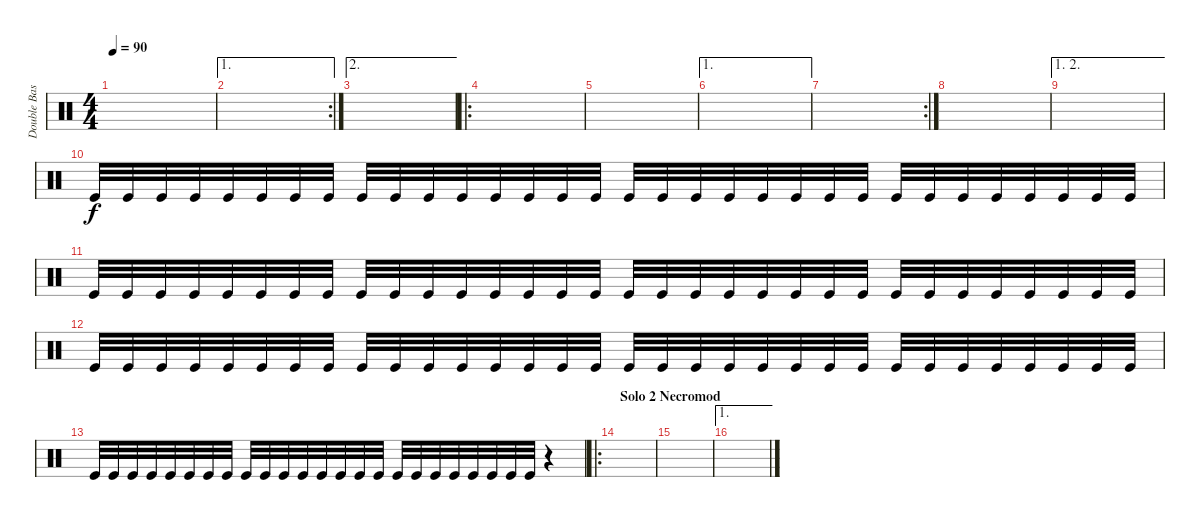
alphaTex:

\track ("Double Bass Drums" "Double Bas") {instrument percussion}
\staff {score}
\articulation defaults
\ts (4 4)
\tempo 90
\clef neutral
\ks c
|
\ae 1
\rc 2
|
\ae 2
|
\ro
|
|
\ae 1
|
\rc 2
|
|
\ae (1 2)
|
"Kick (hit)".32 "Kick (hit)".32 "Kick (hit)".32 "Kick (hit)".32 "Kick (hit)".32 "Kick (hit)".32 "Kick (hit)".32 "Kick (hit)".32 "Kick (hit)".32 "Kick (hit)".32 "Kick (hit)".32 "Kick (hit)".32 "Kick (hit)".32 "Kick (hit)".32 "Kick (hit)".32 "Kick (hit)".32 "Kick (hit)".32 "Kick (hit)".32 "Kick (hit)".32 "Kick (hit)".32 "Kick (hit)".32 "Kick (hit)".32 "Kick (hit)".32 "Kick (hit)".32 "Kick (hit)".32 "Kick (hit)".32 "Kick (hit)".32 "Kick (hit)".32 "Kick (hit)".32 "Kick (hit)".32 "Kick (hit)".32 "Kick (hit)".32 |
"Kick (hit)".32 "Kick (hit)".32 "Kick (hit)".32 "Kick (hit)".32 "Kick (hit)".32 "Kick (hit)".32 "Kick (hit)".32 "Kick (hit)".32 "Kick (hit)".32 "Kick (hit)".32 "Kick (hit)".32 "Kick (hit)".32 "Kick (hit)".32 "Kick (hit)".32 "Kick (hit)".32 "Kick (hit)".32 "Kick (hit)".32 "Kick (hit)".32 "Kick (hit)".32 "Kick (hit)".32 "Kick (hit)".32 "Kick (hit)".32 "Kick (hit)".32 "Kick (hit)".32 "Kick (hit)".32 "Kick (hit)".32 "Kick (hit)".32 "Kick (hit)".32 "Kick (hit)".32 "Kick (hit)".32 "Kick (hit)".32 "Kick (hit)".32 |
"Kick (hit)".32 "Kick (hit)".32 "Kick (hit)".32 "Kick (hit)".32 "Kick (hit)".32 "Kick (hit)".32 "Kick (hit)".32 "Kick (hit)".32 "Kick (hit)".32 "Kick (hit)".32 "Kick (hit)".32 "Kick (hit)".32 "Kick (hit)".32 "Kick (hit)".32 "Kick (hit)".32 "Kick (hit)".32 "Kick (hit)".32 "Kick (hit)".32 "Kick (hit)".32 "Kick (hit)".32 "Kick (hit)".32 "Kick (hit)".32 "Kick (hit)".32 "Kick (hit)".32 "Kick (hit)".32 "Kick (hit)".32 "Kick (hit)".32 "Kick (hit)".32 "Kick (hit)".32 "Kick (hit)".32 "Kick (hit)".32 "Kick (hit)".32 |
"Kick (hit)".32 "Kick (hit)".32 "Kick (hit)".32 "Kick (hit)".32 "Kick (hit)".32 "Kick (hit)".32 "Kick (hit)".32 "Kick (hit)".32 "Kick (hit)".32 "Kick (hit)".32 "Kick (hit)".32 "Kick (hit)".32 "Kick (hit)".32 "Kick (hit)".32 "Kick (hit)".32 "Kick (hit)".32 "Kick (hit)".32 "Kick (hit)".32 "Kick (hit)".32 "Kick (hit)".32 "Kick (hit)".32 "Kick (hit)".32 "Kick (hit)".32 "Kick (hit)".32 r.4 |
\ro
\section ("" "Solo 2 Necromod")
|
|
\ae 1
